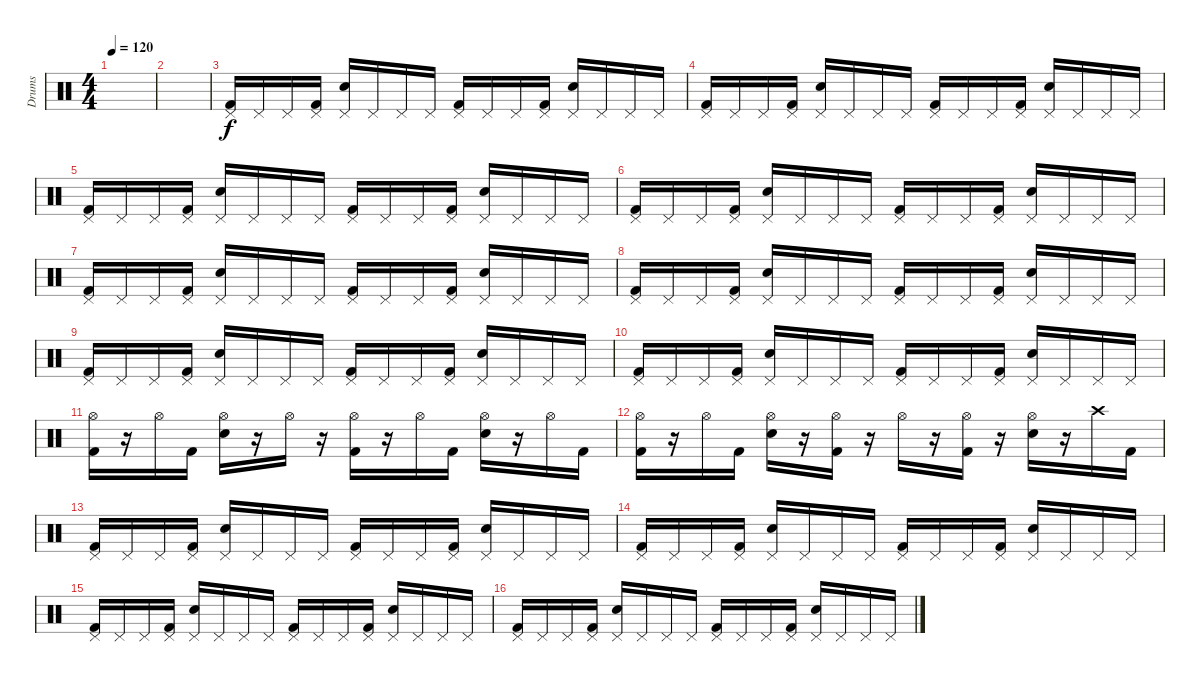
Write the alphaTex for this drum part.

\track ("Drums" "Drums") {instrument percussion}
\staff {score}
\articulation defaults
\ts (4 4)
\tempo 120
\tempo 90
\tempo 120
\clef neutral
\ks c
|
|
("Pedal Hi-Hat (hit)" "Kick (hit) 2").16{volume 5} "Pedal Hi-Hat (hit)".16 "Pedal Hi-Hat (hit)".16 ("Pedal Hi-Hat (hit)" "Kick (hit) 2").16 ("Pedal Hi-Hat (hit)" "Electric Snare (hit)").16 "Pedal Hi-Hat (hit)".16 "Pedal Hi-Hat (hit)".16 "Pedal Hi-Hat (hit)".16 ("Pedal Hi-Hat (hit)" "Kick (hit) 2").16 "Pedal Hi-Hat (hit)".16 "Pedal Hi-Hat (hit)".16 ("Pedal Hi-Hat (hit)" "Kick (hit) 2").16 ("Pedal Hi-Hat (hit)" "Electric Snare (hit)").16 "Pedal Hi-Hat (hit)".16 "Pedal Hi-Hat (hit)".16 "Pedal Hi-Hat (hit)".16 |
("Pedal Hi-Hat (hit)" "Kick (hit) 2").16 "Pedal Hi-Hat (hit)".16 "Pedal Hi-Hat (hit)".16 ("Pedal Hi-Hat (hit)" "Kick (hit) 2").16 ("Pedal Hi-Hat (hit)" "Electric Snare (hit)").16 "Pedal Hi-Hat (hit)".16 "Pedal Hi-Hat (hit)".16 "Pedal Hi-Hat (hit)".16 ("Pedal Hi-Hat (hit)" "Kick (hit) 2").16 "Pedal Hi-Hat (hit)".16 "Pedal Hi-Hat (hit)".16 ("Pedal Hi-Hat (hit)" "Kick (hit) 2").16 ("Pedal Hi-Hat (hit)" "Electric Snare (hit)").16 "Pedal Hi-Hat (hit)".16 "Pedal Hi-Hat (hit)".16 "Pedal Hi-Hat (hit)".16 |
("Pedal Hi-Hat (hit)" "Kick (hit) 2").16{volume 10} "Pedal Hi-Hat (hit)".16 "Pedal Hi-Hat (hit)".16 ("Pedal Hi-Hat (hit)" "Kick (hit) 2").16 ("Pedal Hi-Hat (hit)" "Electric Snare (hit)").16 "Pedal Hi-Hat (hit)".16 "Pedal Hi-Hat (hit)".16 "Pedal Hi-Hat (hit)".16 ("Pedal Hi-Hat (hit)" "Kick (hit) 2").16 "Pedal Hi-Hat (hit)".16 "Pedal Hi-Hat (hit)".16 ("Pedal Hi-Hat (hit)" "Kick (hit) 2").16 ("Pedal Hi-Hat (hit)" "Electric Snare (hit)").16 "Pedal Hi-Hat (hit)".16 "Pedal Hi-Hat (hit)".16 "Pedal Hi-Hat (hit)".16 |
("Pedal Hi-Hat (hit)" "Kick (hit) 2").16 "Pedal Hi-Hat (hit)".16 "Pedal Hi-Hat (hit)".16 ("Pedal Hi-Hat (hit)" "Kick (hit) 2").16 ("Pedal Hi-Hat (hit)" "Electric Snare (hit)").16 "Pedal Hi-Hat (hit)".16 "Pedal Hi-Hat (hit)".16 "Pedal Hi-Hat (hit)".16 ("Pedal Hi-Hat (hit)" "Kick (hit) 2").16 "Pedal Hi-Hat (hit)".16 "Pedal Hi-Hat (hit)".16 ("Pedal Hi-Hat (hit)" "Kick (hit) 2").16 ("Pedal Hi-Hat (hit)" "Electric Snare (hit)").16 "Pedal Hi-Hat (hit)".16 "Pedal Hi-Hat (hit)".16 "Pedal Hi-Hat (hit)".16 |
("Pedal Hi-Hat (hit)" "Kick (hit) 2").16 "Pedal Hi-Hat (hit)".16 "Pedal Hi-Hat (hit)".16 ("Pedal Hi-Hat (hit)" "Kick (hit) 2").16 ("Pedal Hi-Hat (hit)" "Electric Snare (hit)").16 "Pedal Hi-Hat (hit)".16 "Pedal Hi-Hat (hit)".16 "Pedal Hi-Hat (hit)".16 ("Pedal Hi-Hat (hit)" "Kick (hit) 2").16 "Pedal Hi-Hat (hit)".16 "Pedal Hi-Hat (hit)".16 ("Pedal Hi-Hat (hit)" "Kick (hit) 2").16 ("Pedal Hi-Hat (hit)" "Electric Snare (hit)").16 "Pedal Hi-Hat (hit)".16 "Pedal Hi-Hat (hit)".16 "Pedal Hi-Hat (hit)".16 |
("Pedal Hi-Hat (hit)" "Kick (hit) 2").16 "Pedal Hi-Hat (hit)".16 "Pedal Hi-Hat (hit)".16 ("Pedal Hi-Hat (hit)" "Kick (hit) 2").16 ("Pedal Hi-Hat (hit)" "Electric Snare (hit)").16 "Pedal Hi-Hat (hit)".16 "Pedal Hi-Hat (hit)".16 "Pedal Hi-Hat (hit)".16 ("Pedal Hi-Hat (hit)" "Kick (hit) 2").16 "Pedal Hi-Hat (hit)".16 "Pedal Hi-Hat (hit)".16 ("Pedal Hi-Hat (hit)" "Kick (hit) 2").16 ("Pedal Hi-Hat (hit)" "Electric Snare (hit)").16 "Pedal Hi-Hat (hit)".16 "Pedal Hi-Hat (hit)".16 "Pedal Hi-Hat (hit)".16 |
("Pedal Hi-Hat (hit)" "Kick (hit) 2").16 "Pedal Hi-Hat (hit)".16 "Pedal Hi-Hat (hit)".16 ("Pedal Hi-Hat (hit)" "Kick (hit) 2").16 ("Pedal Hi-Hat (hit)" "Electric Snare (hit)").16 "Pedal Hi-Hat (hit)".16 "Pedal Hi-Hat (hit)".16 "Pedal Hi-Hat (hit)".16 ("Pedal Hi-Hat (hit)" "Kick (hit) 2").16 "Pedal Hi-Hat (hit)".16 "Pedal Hi-Hat (hit)".16 ("Pedal Hi-Hat (hit)" "Kick (hit) 2").16 ("Pedal Hi-Hat (hit)" "Electric Snare (hit)").16 "Pedal Hi-Hat (hit)".16 "Pedal Hi-Hat (hit)".16 "Pedal Hi-Hat (hit)".16 |
("Pedal Hi-Hat (hit)" "Kick (hit) 2").16 "Pedal Hi-Hat (hit)".16 "Pedal Hi-Hat (hit)".16 ("Pedal Hi-Hat (hit)" "Kick (hit) 2").16 ("Pedal Hi-Hat (hit)" "Electric Snare (hit)").16 "Pedal Hi-Hat (hit)".16 "Pedal Hi-Hat (hit)".16 "Pedal Hi-Hat (hit)".16 ("Pedal Hi-Hat (hit)" "Kick (hit) 2").16 "Pedal Hi-Hat (hit)".16 "Pedal Hi-Hat (hit)".16 ("Pedal Hi-Hat (hit)" "Kick (hit) 2").16 ("Pedal Hi-Hat (hit)" "Electric Snare (hit)").16 "Pedal Hi-Hat (hit)".16 "Pedal Hi-Hat (hit)".16 "Pedal Hi-Hat (hit)".16 |
("Hi-Hat (open)" "Kick (hit) 2").16 r.16 "Hi-Hat (open)".16 "Kick (hit) 2".16 ("Hi-Hat (open)" "Electric Snare (hit)").16 r.16 "Hi-Hat (open)".16 r.16 ("Hi-Hat (open)" "Kick (hit) 2").16 r.16 "Hi-Hat (open)".16 "Kick (hit) 2".16 ("Hi-Hat (open)" "Electric Snare (hit)").16 r.16 "Hi-Hat (open)".16 "Kick (hit) 2".16 |
("Hi-Hat (open)" "Kick (hit) 2").16 r.16 "Hi-Hat (open)".16 "Kick (hit) 2".16 ("Hi-Hat (open)" "Electric Snare (hit)").16 r.16 ("Hi-Hat (open)" "Kick (hit) 2").16 r.16 "Hi-Hat (open)".16 r.16 ("Hi-Hat (open)" "Kick (hit) 2").16 r.16 ("Hi-Hat (open)" "Electric Snare (hit)").16 r.16 "Crash high (hit)".16 "Kick (hit) 2".16 |
("Pedal Hi-Hat (hit)" "Kick (hit) 2").16 "Pedal Hi-Hat (hit)".16 "Pedal Hi-Hat (hit)".16 ("Pedal Hi-Hat (hit)" "Kick (hit) 2").16 ("Pedal Hi-Hat (hit)" "Electric Snare (hit)").16 "Pedal Hi-Hat (hit)".16 "Pedal Hi-Hat (hit)".16 "Pedal Hi-Hat (hit)".16 ("Pedal Hi-Hat (hit)" "Kick (hit) 2").16 "Pedal Hi-Hat (hit)".16 "Pedal Hi-Hat (hit)".16 ("Pedal Hi-Hat (hit)" "Kick (hit) 2").16 ("Pedal Hi-Hat (hit)" "Electric Snare (hit)").16 "Pedal Hi-Hat (hit)".16 "Pedal Hi-Hat (hit)".16 "Pedal Hi-Hat (hit)".16 |
("Pedal Hi-Hat (hit)" "Kick (hit) 2").16 "Pedal Hi-Hat (hit)".16 "Pedal Hi-Hat (hit)".16 ("Pedal Hi-Hat (hit)" "Kick (hit) 2").16 ("Pedal Hi-Hat (hit)" "Electric Snare (hit)").16 "Pedal Hi-Hat (hit)".16 "Pedal Hi-Hat (hit)".16 "Pedal Hi-Hat (hit)".16 ("Pedal Hi-Hat (hit)" "Kick (hit) 2").16 "Pedal Hi-Hat (hit)".16 "Pedal Hi-Hat (hit)".16 ("Pedal Hi-Hat (hit)" "Kick (hit) 2").16 ("Pedal Hi-Hat (hit)" "Electric Snare (hit)").16 "Pedal Hi-Hat (hit)".16 "Pedal Hi-Hat (hit)".16 "Pedal Hi-Hat (hit)".16 |
("Pedal Hi-Hat (hit)" "Kick (hit) 2").16 "Pedal Hi-Hat (hit)".16 "Pedal Hi-Hat (hit)".16 ("Pedal Hi-Hat (hit)" "Kick (hit) 2").16 ("Pedal Hi-Hat (hit)" "Electric Snare (hit)").16 "Pedal Hi-Hat (hit)".16 "Pedal Hi-Hat (hit)".16 "Pedal Hi-Hat (hit)".16 ("Pedal Hi-Hat (hit)" "Kick (hit) 2").16 "Pedal Hi-Hat (hit)".16 "Pedal Hi-Hat (hit)".16 ("Pedal Hi-Hat (hit)" "Kick (hit) 2").16 ("Pedal Hi-Hat (hit)" "Electric Snare (hit)").16 "Pedal Hi-Hat (hit)".16 "Pedal Hi-Hat (hit)".16 "Pedal Hi-Hat (hit)".16 |
("Pedal Hi-Hat (hit)" "Kick (hit) 2").16 "Pedal Hi-Hat (hit)".16 "Pedal Hi-Hat (hit)".16 ("Pedal Hi-Hat (hit)" "Kick (hit) 2").16 ("Pedal Hi-Hat (hit)" "Electric Snare (hit)").16 "Pedal Hi-Hat (hit)".16 "Pedal Hi-Hat (hit)".16 "Pedal Hi-Hat (hit)".16 ("Pedal Hi-Hat (hit)" "Kick (hit) 2").16 "Pedal Hi-Hat (hit)".16 "Pedal Hi-Hat (hit)".16 ("Pedal Hi-Hat (hit)" "Kick (hit) 2").16 ("Pedal Hi-Hat (hit)" "Electric Snare (hit)").16 "Pedal Hi-Hat (hit)".16 "Pedal Hi-Hat (hit)".16 "Pedal Hi-Hat (hit)".16
